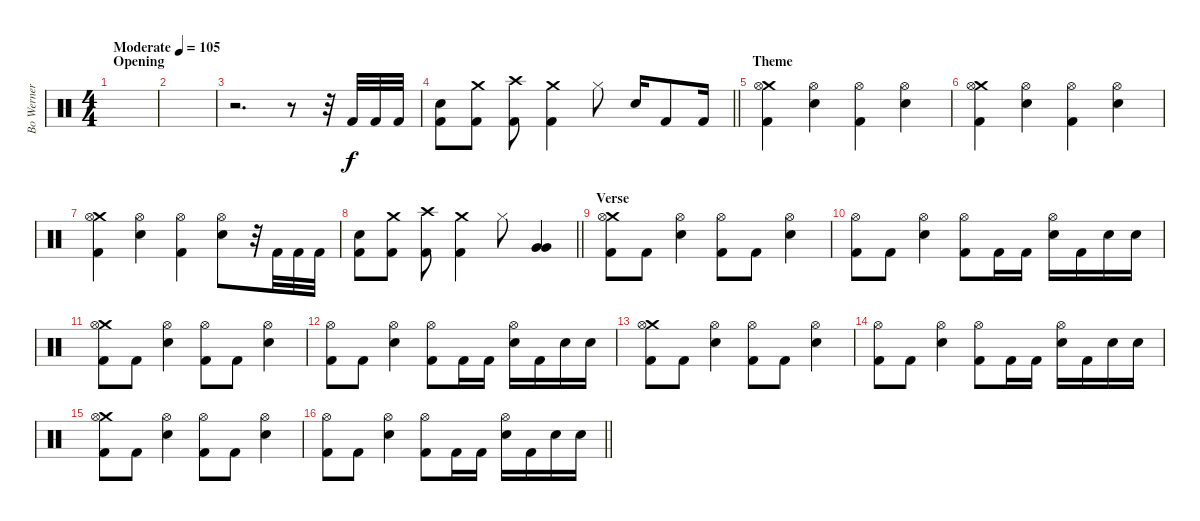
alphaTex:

\track ("Bo Werner" "Bo Werner") {instrument percussion}
\staff {score}
\articulation defaults
\ts (4 4)
\section ("" "Opening")
\tempo (105 "Moderate")
\clef neutral
\ks c
|
|
r.2{d} r.8 r.32 "Kick (hit) 2".32 "Kick (hit) 2".32 "Kick (hit) 2".32 |
\barLineRight lightlight
("Snare (hit) 2" "Kick (hit) 2").8 ("Crash medium (hit)" "Kick (hit) 2").8 ("Crash high (hit)" "Kick (hit) 2").8 ("Crash medium (hit)" "Kick (hit) 2").4 "Hi-Hat (closed)".8 "Snare (hit) 2".16 "Kick (hit) 2".8 "Kick (hit) 2".16 |
\section ("" "Theme")
("Crash medium (hit)" "Hi-Hat (open)" "Kick (hit) 2").4 ("Hi-Hat (open)" "Snare (hit) 2").4 ("Hi-Hat (open)" "Kick (hit) 2").4 ("Hi-Hat (open)" "Snare (hit) 2").4 |
("Crash medium (hit)" "Hi-Hat (open)" "Kick (hit) 2").4 ("Hi-Hat (open)" "Snare (hit) 2").4 ("Hi-Hat (open)" "Kick (hit) 2").4 ("Hi-Hat (open)" "Snare (hit) 2").4 |
("Crash medium (hit)" "Hi-Hat (open)" "Kick (hit) 2").4 ("Hi-Hat (open)" "Snare (hit) 2").4 ("Hi-Hat (open)" "Kick (hit) 2").4 ("Hi-Hat (open)" "Snare (hit) 2").8 r.32 "Kick (hit) 2".32 "Kick (hit) 2".32 "Kick (hit) 2".32 |
\barLineRight lightlight
("Snare (hit) 2" "Kick (hit) 2").8 ("Crash medium (hit)" "Kick (hit) 2").8 ("Crash high (hit)" "Kick (hit) 2").8 ("Crash medium (hit)" "Kick (hit) 2").4 "Hi-Hat (closed)".8 ("Very Low Tom (hit)" "Very Low Tom (hit)").4 |
\section ("" "Verse")
("Crash medium (hit)" "Hi-Hat (open)" "Kick (hit) 2").8 "Kick (hit) 2".8 ("Hi-Hat (open)" "Snare (hit) 2").4 ("Hi-Hat (open)" "Kick (hit) 2").8 "Kick (hit) 2".8 ("Hi-Hat (open)" "Snare (hit) 2").4 |
("Hi-Hat (open)" "Kick (hit) 2").8 "Kick (hit) 2".8 ("Hi-Hat (open)" "Snare (hit) 2").4 ("Hi-Hat (open)" "Kick (hit) 2").8 "Kick (hit) 2".16 "Kick (hit) 2".16 ("Hi-Hat (open)" "Snare (hit) 2").16 "Kick (hit) 2".16 "Snare (hit) 2".16 "Snare (hit) 2".16 |
("Crash medium (hit)" "Hi-Hat (open)" "Kick (hit) 2").8 "Kick (hit) 2".8 ("Hi-Hat (open)" "Snare (hit) 2").4 ("Hi-Hat (open)" "Kick (hit) 2").8 "Kick (hit) 2".8 ("Hi-Hat (open)" "Snare (hit) 2").4 |
("Hi-Hat (open)" "Kick (hit) 2").8 "Kick (hit) 2".8 ("Hi-Hat (open)" "Snare (hit) 2").4 ("Hi-Hat (open)" "Kick (hit) 2").8 "Kick (hit) 2".16 "Kick (hit) 2".16 ("Hi-Hat (open)" "Snare (hit) 2").16 "Kick (hit) 2".16 "Snare (hit) 2".16 "Snare (hit) 2".16 |
("Crash medium (hit)" "Hi-Hat (open)" "Kick (hit) 2").8 "Kick (hit) 2".8 ("Hi-Hat (open)" "Snare (hit) 2").4 ("Hi-Hat (open)" "Kick (hit) 2").8 "Kick (hit) 2".8 ("Hi-Hat (open)" "Snare (hit) 2").4 |
("Hi-Hat (open)" "Kick (hit) 2").8 "Kick (hit) 2".8 ("Hi-Hat (open)" "Snare (hit) 2").4 ("Hi-Hat (open)" "Kick (hit) 2").8 "Kick (hit) 2".16 "Kick (hit) 2".16 ("Hi-Hat (open)" "Snare (hit) 2").16 "Kick (hit) 2".16 "Snare (hit) 2".16 "Snare (hit) 2".16 |
("Crash medium (hit)" "Hi-Hat (open)" "Kick (hit) 2").8 "Kick (hit) 2".8 ("Hi-Hat (open)" "Snare (hit) 2").4 ("Hi-Hat (open)" "Kick (hit) 2").8 "Kick (hit) 2".8 ("Hi-Hat (open)" "Snare (hit) 2").4 |
\barLineRight lightlight
("Hi-Hat (open)" "Kick (hit) 2").8 "Kick (hit) 2".8 ("Hi-Hat (open)" "Snare (hit) 2").4 ("Hi-Hat (open)" "Kick (hit) 2").8 "Kick (hit) 2".16 "Kick (hit) 2".16 ("Hi-Hat (open)" "Snare (hit) 2").16 "Kick (hit) 2".16 "Snare (hit) 2".16 "Snare (hit) 2".16
